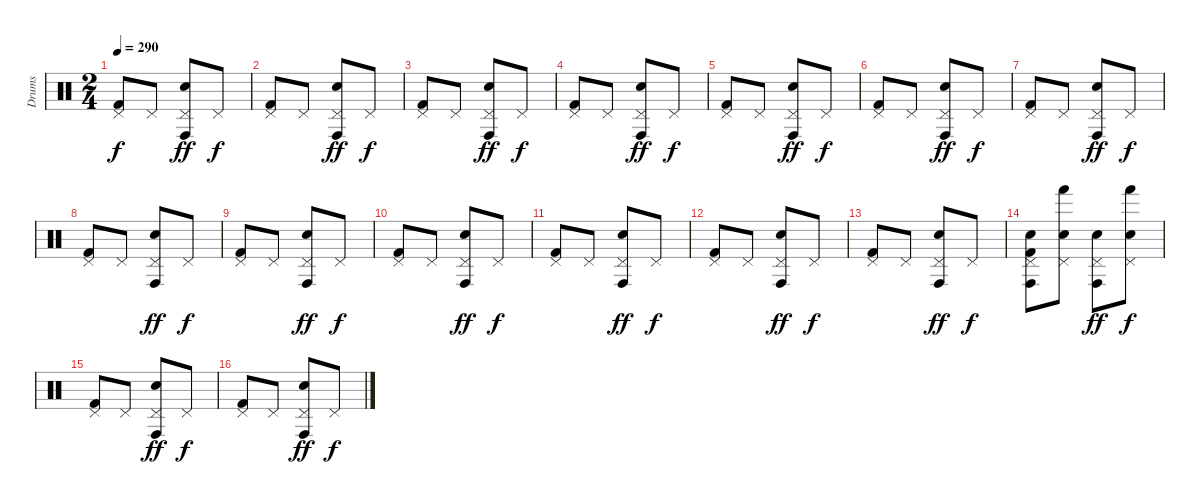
\track ("Drums" "Drums") {instrument percussion}
\staff {score}
\articulation defaults
\ts (2 4)
\tempo 290
\clef neutral
\ks c
("Pedal Hi-Hat (hit)" "Kick (hit) 2").8{dy f} "Pedal Hi-Hat (hit)".8 ("Pedal Hi-Hat (hit)" "Conga high (hit)" "Electric Snare (hit)").8{dy ff} "Pedal Hi-Hat (hit)".8{dy f} |
("Pedal Hi-Hat (hit)" "Kick (hit) 2").8 "Pedal Hi-Hat (hit)".8 ("Pedal Hi-Hat (hit)" "Conga high (hit)" "Electric Snare (hit)").8{dy ff} "Pedal Hi-Hat (hit)".8{dy f} |
("Pedal Hi-Hat (hit)" "Kick (hit) 2").8 "Pedal Hi-Hat (hit)".8 ("Pedal Hi-Hat (hit)" "Conga high (hit)" "Electric Snare (hit)").8{dy ff} "Pedal Hi-Hat (hit)".8{dy f} |
("Pedal Hi-Hat (hit)" "Kick (hit) 2").8 "Pedal Hi-Hat (hit)".8 ("Pedal Hi-Hat (hit)" "Conga high (hit)" "Electric Snare (hit)").8{dy ff} "Pedal Hi-Hat (hit)".8{dy f} |
("Pedal Hi-Hat (hit)" "Kick (hit) 2").8 "Pedal Hi-Hat (hit)".8 ("Pedal Hi-Hat (hit)" "Conga high (hit)" "Electric Snare (hit)").8{dy ff} "Pedal Hi-Hat (hit)".8{dy f} |
("Pedal Hi-Hat (hit)" "Kick (hit) 2").8 "Pedal Hi-Hat (hit)".8 ("Pedal Hi-Hat (hit)" "Conga high (hit)" "Electric Snare (hit)").8{dy ff} "Pedal Hi-Hat (hit)".8{dy f} |
("Pedal Hi-Hat (hit)" "Kick (hit) 2").8 "Pedal Hi-Hat (hit)".8 ("Pedal Hi-Hat (hit)" "Conga high (hit)" "Electric Snare (hit)").8{dy ff} "Pedal Hi-Hat (hit)".8{dy f} |
("Pedal Hi-Hat (hit)" "Kick (hit) 2").8 "Pedal Hi-Hat (hit)".8 ("Pedal Hi-Hat (hit)" "Conga high (hit)" "Electric Snare (hit)").8{dy ff} "Pedal Hi-Hat (hit)".8{dy f} |
("Pedal Hi-Hat (hit)" "Kick (hit) 2").8 "Pedal Hi-Hat (hit)".8 ("Pedal Hi-Hat (hit)" "Conga high (hit)" "Electric Snare (hit)").8{dy ff} "Pedal Hi-Hat (hit)".8{dy f} |
("Pedal Hi-Hat (hit)" "Kick (hit) 2").8 "Pedal Hi-Hat (hit)".8 ("Pedal Hi-Hat (hit)" "Conga high (hit)" "Electric Snare (hit)").8{dy ff} "Pedal Hi-Hat (hit)".8{dy f} |
("Pedal Hi-Hat (hit)" "Kick (hit) 2").8 "Pedal Hi-Hat (hit)".8 ("Pedal Hi-Hat (hit)" "Conga high (hit)" "Electric Snare (hit)").8{dy ff} "Pedal Hi-Hat (hit)".8{dy f} |
("Pedal Hi-Hat (hit)" "Kick (hit) 2").8 "Pedal Hi-Hat (hit)".8 ("Pedal Hi-Hat (hit)" "Conga high (hit)" "Electric Snare (hit)").8{dy ff} "Pedal Hi-Hat (hit)".8{dy f} |
("Pedal Hi-Hat (hit)" "Kick (hit) 2").8 "Pedal Hi-Hat (hit)".8 ("Pedal Hi-Hat (hit)" "Conga high (hit)" "Electric Snare (hit)").8{dy ff} "Pedal Hi-Hat (hit)".8{dy f} |
("Pedal Hi-Hat (hit)" "Conga high (hit)" "Electric Snare (hit)" "Kick (hit) 2").8 ("Pedal Hi-Hat (hit)" "Hand (hit)" "Electric Snare (hit)").8 ("Pedal Hi-Hat (hit)" "Conga high (hit)" "Electric Snare (hit)").8{dy ff} ("Pedal Hi-Hat (hit)" "Hand (hit)" "Electric Snare (hit)").8{dy f} |
("Pedal Hi-Hat (hit)" "Kick (hit) 2").8 "Pedal Hi-Hat (hit)".8 ("Pedal Hi-Hat (hit)" "Conga high (hit)" "Electric Snare (hit)").8{dy ff} "Pedal Hi-Hat (hit)".8{dy f} |
("Pedal Hi-Hat (hit)" "Kick (hit) 2").8 "Pedal Hi-Hat (hit)".8 ("Pedal Hi-Hat (hit)" "Conga high (hit)" "Electric Snare (hit)").8{dy ff} "Pedal Hi-Hat (hit)".8{dy f}
